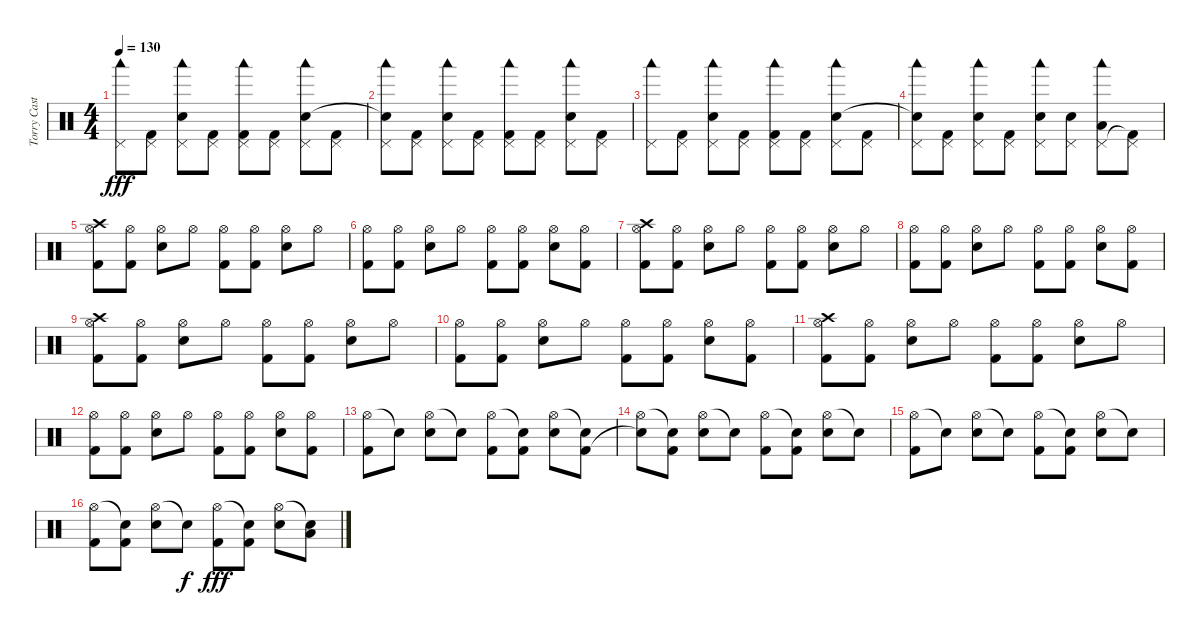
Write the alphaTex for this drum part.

\track ("Torry Castellano" "Torry Cast") {instrument percussion}
\staff {score}
\articulation defaults
\ts (4 4)
\tempo 130
\clef neutral
\ks c
("Woodblock low (hit)" "Pedal Hi-Hat (hit)").8{dy fff} ("Pedal Hi-Hat (hit)" "Kick (hit) 2").8 ("Woodblock low (hit)" "Pedal Hi-Hat (hit)" "Electric Snare (hit)").8 ("Pedal Hi-Hat (hit)" "Kick (hit) 2").8 ("Woodblock low (hit)" "Pedal Hi-Hat (hit)" "Kick (hit) 2").8 ("Pedal Hi-Hat (hit)" "Kick (hit) 2").8 ("Woodblock low (hit)" "Pedal Hi-Hat (hit)" "Electric Snare (hit)").8 ("Pedal Hi-Hat (hit)" "Kick (hit) 2").8 |
("Woodblock low (hit)" "Pedal Hi-Hat (hit)" "Snare (hit)"{t}).8 ("Pedal Hi-Hat (hit)" "Kick (hit) 2").8 ("Woodblock low (hit)" "Pedal Hi-Hat (hit)" "Electric Snare (hit)").8 ("Pedal Hi-Hat (hit)" "Kick (hit) 2").8 ("Woodblock low (hit)" "Pedal Hi-Hat (hit)" "Kick (hit) 2").8 ("Pedal Hi-Hat (hit)" "Kick (hit) 2").8 ("Woodblock low (hit)" "Pedal Hi-Hat (hit)" "Electric Snare (hit)").8 ("Pedal Hi-Hat (hit)" "Kick (hit) 2").8 |
("Woodblock low (hit)" "Pedal Hi-Hat (hit)").8 ("Pedal Hi-Hat (hit)" "Kick (hit) 2").8 ("Woodblock low (hit)" "Pedal Hi-Hat (hit)" "Electric Snare (hit)").8 ("Pedal Hi-Hat (hit)" "Kick (hit) 2").8 ("Woodblock low (hit)" "Pedal Hi-Hat (hit)" "Kick (hit) 2").8 ("Pedal Hi-Hat (hit)" "Kick (hit) 2").8 ("Woodblock low (hit)" "Pedal Hi-Hat (hit)" "Electric Snare (hit)").8 ("Pedal Hi-Hat (hit)" "Kick (hit) 2").8 |
("Woodblock low (hit)" "Pedal Hi-Hat (hit)" "Snare (hit)"{t}).8 ("Pedal Hi-Hat (hit)" "Kick (hit) 2").8 ("Woodblock low (hit)" "Pedal Hi-Hat (hit)" "Electric Snare (hit)").8 ("Pedal Hi-Hat (hit)" "Kick (hit) 2").8 ("Woodblock low (hit)" "Pedal Hi-Hat (hit)" "Electric Snare (hit)").8 ("Pedal Hi-Hat (hit)" "Electric Snare (hit)").8 ("Woodblock low (hit)" "Pedal Hi-Hat (hit)" "Low Floor Tom (hit)").8 ("Pedal Hi-Hat (hit)" "Kick (hit) 2"{t}).8 |
("Crash high (hit)" "Hi-Hat (open)" "Kick (hit) 2").8 ("Hi-Hat (open)" "Kick (hit) 2").8 ("Hi-Hat (open)" "Electric Snare (hit)").8 "Hi-Hat (open)".8 ("Hi-Hat (open)" "Kick (hit) 2").8 ("Hi-Hat (open)" "Kick (hit) 2").8 ("Hi-Hat (open)" "Electric Snare (hit)").8 "Hi-Hat (open)".8 |
("Hi-Hat (open)" "Kick (hit) 2").8 ("Hi-Hat (open)" "Kick (hit) 2").8 ("Hi-Hat (open)" "Electric Snare (hit)").8 "Hi-Hat (open)".8 ("Hi-Hat (open)" "Kick (hit) 2").8 ("Hi-Hat (open)" "Kick (hit) 2").8 ("Hi-Hat (open)" "Electric Snare (hit)").8 ("Hi-Hat (open)" "Kick (hit) 2").8 |
("Crash high (hit)" "Hi-Hat (open)" "Kick (hit) 2").8 ("Hi-Hat (open)" "Kick (hit) 2").8 ("Hi-Hat (open)" "Electric Snare (hit)").8 "Hi-Hat (open)".8 ("Hi-Hat (open)" "Kick (hit) 2").8 ("Hi-Hat (open)" "Kick (hit) 2").8 ("Hi-Hat (open)" "Electric Snare (hit)").8 "Hi-Hat (open)".8 |
("Hi-Hat (open)" "Kick (hit) 2").8 ("Hi-Hat (open)" "Kick (hit) 2").8 ("Hi-Hat (open)" "Electric Snare (hit)").8 "Hi-Hat (open)".8 ("Hi-Hat (open)" "Kick (hit) 2").8 ("Hi-Hat (open)" "Kick (hit) 2").8 ("Hi-Hat (open)" "Electric Snare (hit)").8 ("Hi-Hat (open)" "Kick (hit) 2").8 |
("Crash high (hit)" "Hi-Hat (open)" "Kick (hit) 2").8 ("Hi-Hat (open)" "Kick (hit) 2").8 ("Hi-Hat (open)" "Electric Snare (hit)").8 "Hi-Hat (open)".8 ("Hi-Hat (open)" "Kick (hit) 2").8 ("Hi-Hat (open)" "Kick (hit) 2").8 ("Hi-Hat (open)" "Electric Snare (hit)").8 "Hi-Hat (open)".8 |
("Hi-Hat (open)" "Kick (hit) 2").8 ("Hi-Hat (open)" "Kick (hit) 2").8 ("Hi-Hat (open)" "Electric Snare (hit)").8 "Hi-Hat (open)".8 ("Hi-Hat (open)" "Kick (hit) 2").8 ("Hi-Hat (open)" "Kick (hit) 2").8 ("Hi-Hat (open)" "Electric Snare (hit)").8 ("Hi-Hat (open)" "Kick (hit) 2").8 |
("Crash high (hit)" "Hi-Hat (open)" "Kick (hit) 2").8 ("Hi-Hat (open)" "Kick (hit) 2").8 ("Hi-Hat (open)" "Electric Snare (hit)").8 "Hi-Hat (open)".8 ("Hi-Hat (open)" "Kick (hit) 2").8 ("Hi-Hat (open)" "Kick (hit) 2").8 ("Hi-Hat (open)" "Electric Snare (hit)").8 "Hi-Hat (open)".8 |
("Hi-Hat (open)" "Kick (hit) 2").8 ("Hi-Hat (open)" "Kick (hit) 2").8 ("Hi-Hat (open)" "Electric Snare (hit)").8 "Hi-Hat (open)".8 ("Hi-Hat (open)" "Kick (hit) 2").8 ("Hi-Hat (open)" "Kick (hit) 2").8 ("Hi-Hat (open)" "Electric Snare (hit)").8 ("Hi-Hat (open)" "Kick (hit) 2").8 |
("Hi-Hat (open)" "Kick (hit) 2").8 "Snare (hit)"{t}.8 ("Hi-Hat (open)" "Electric Snare (hit)").8 "Snare (hit)"{t}.8 ("Hi-Hat (open)" "Kick (hit) 2").8 ("Snare (hit)"{t} "Kick (hit) 2").8 ("Hi-Hat (open)" "Electric Snare (hit)").8 ("Snare (hit)"{t} "Kick (hit) 2").8 |
("Hi-Hat (open)" "Snare (hit)"{t}).8 ("Snare (hit)"{t} "Kick (hit) 2").8 ("Hi-Hat (open)" "Electric Snare (hit)").8 "Snare (hit)"{t}.8 ("Hi-Hat (open)" "Kick (hit) 2").8 ("Snare (hit)"{t} "Kick (hit) 2").8 ("Hi-Hat (open)" "Electric Snare (hit)").8 "Snare (hit)"{t}.8 |
("Hi-Hat (open)" "Kick (hit) 2").8 "Snare (hit)"{t}.8 ("Hi-Hat (open)" "Electric Snare (hit)").8 "Snare (hit)"{t}.8 ("Hi-Hat (open)" "Kick (hit) 2").8 ("Snare (hit)"{t} "Kick (hit) 2").8 ("Hi-Hat (open)" "Electric Snare (hit)").8 "Snare (hit)"{t}.8 |
("Hi-Hat (open)" "Kick (hit) 2").8 ("Snare (hit)"{t} "Kick (hit) 2").8 ("Hi-Hat (open)" "Electric Snare (hit)").8 "Snare (hit)"{t}.8{dy f} ("Hi-Hat (open)" "Kick (hit) 2").8{dy fff} ("Snare (hit)"{t} "Kick (hit) 2").8 ("Hi-Hat (open)" "Electric Snare (hit)").8 ("Snare (hit)"{t} "Low Floor Tom (hit)").8
